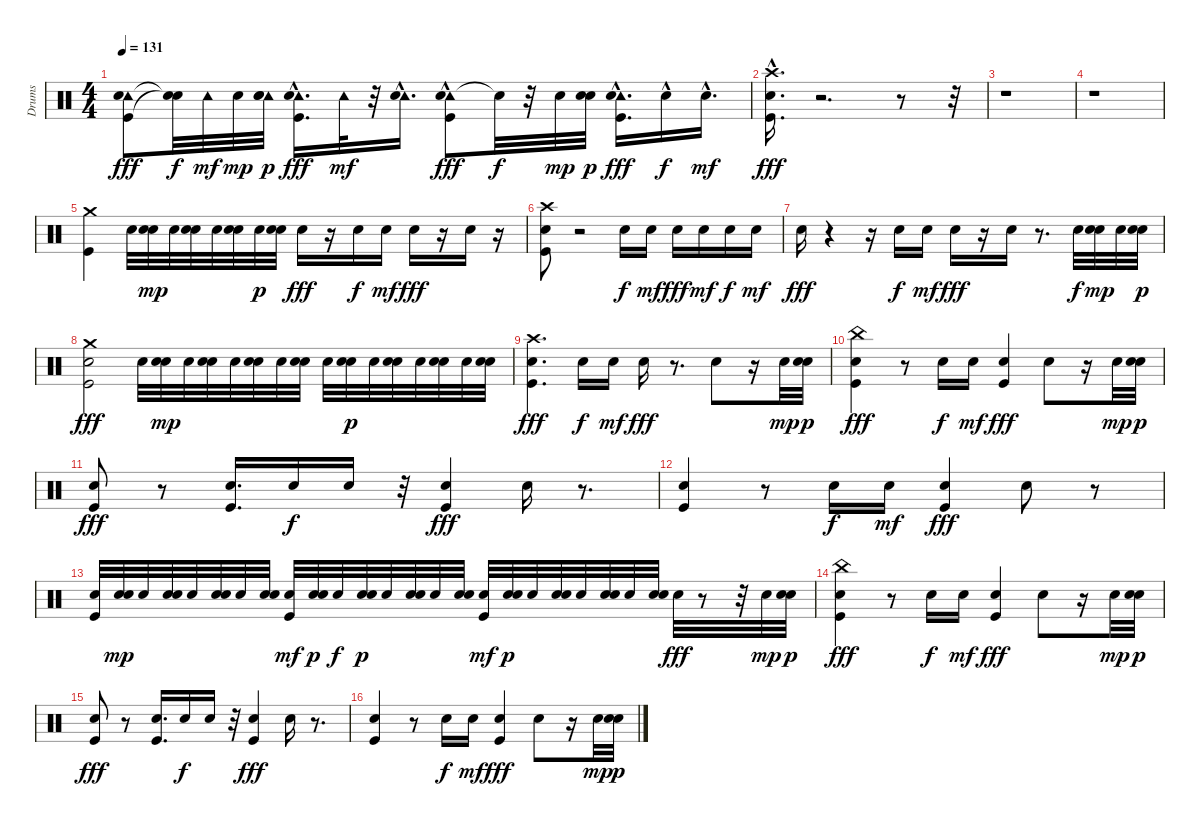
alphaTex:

\track ("Drums" "Drums") {instrument percussion}
\staff {score}
\articulation defaults
\ts (4 4)
\tempo 131
\clef neutral
\ks c
("Tambourine (hit)" "Kick (hit)" "Snare (hit) 2").8{dy fff} ("Snare (hit)"{t} "Snare (hit)"{t}).32{dy f} "Tambourine (hit)".32{dy mf} "Snare (hit) 2".32{dy mp} ("Tambourine (hit)" "Snare (hit) 2" "Snare (hit) 2").32{dy p} ("Tambourine (hit)" "Kick (hit)" "Snare (hit) 2"{hac}).16{d dy fff} "Tambourine (hit)".32{dy mf} r.32 ("Tambourine (hit)"{hac} "Snare (hit) 2"{hac}).16{d} ("Tambourine (hit)" "Kick (hit)" "Snare (hit) 2"{hac}).8{dy fff} "Snare (hit)"{t}.32{dy f} r.32 "Snare (hit) 2".32{dy mp} ("Snare (hit) 2" "Snare (hit) 2").32{dy p} ("Tambourine (hit)"{hac} "Kick (hit)"{hac} "Snare (hit) 2"{hac}).16{d dy fff} "Snare (hit) 2"{hac}.16{dy f} "Snare (hit) 2"{hac}.16{d dy mf} |
("Crash high (hit)" "Snare (hit) 2"{hac} "Kick (hit)"{hac}).16{d dy fff} r.2{d} r.8 r.32 |
r.1 |
r.1 |
("Kick (hit)" "Crash medium (hit)").4 "Snare (hit) 2".32 ("Snare (hit) 2" "Snare (hit) 2").32{dy mp} "Snare (hit) 2".32 ("Snare (hit) 2" "Snare (hit) 2").32 "Snare (hit) 2".32 ("Snare (hit) 2" "Snare (hit) 2").32 "Snare (hit) 2".32{dy p} ("Snare (hit) 2" "Snare (hit) 2").32 "Snare (hit) 2".16{dy fff} r.16 "Snare (hit) 2".16{dy f} "Snare (hit) 2".16{dy mf} "Snare (hit) 2".16{dy fff} r.16 "Snare (hit) 2".16 r.16 |
("Snare (hit) 2" "Crash high (hit)" "Kick (hit)").8 r.2 "Snare (hit) 2".16{dy f} "Snare (hit) 2".16{dy mf} "Snare (hit) 2".16{dy fff} "Snare (hit) 2".16{dy mf} "Snare (hit) 2".16{dy f} "Snare (hit) 2".16{dy mf} |
"Snare (hit) 2".16{dy fff} r.4 r.16 "Snare (hit) 2".16{dy f} "Snare (hit) 2".16{dy mf} "Snare (hit) 2".16{dy fff} r.16 "Snare (hit) 2".16 r.8{d} "Snare (hit) 2".32{dy f} ("Snare (hit) 2" "Snare (hit) 2").32{dy mp} "Snare (hit) 2".32 ("Snare (hit) 2" "Snare (hit) 2").32{dy p} |
("Snare (hit) 2" "Kick (hit)" "Crash medium (hit)").2{dy fff} "Snare (hit) 2".32 ("Snare (hit) 2" "Snare (hit) 2").32{dy mp} "Snare (hit) 2".32 ("Snare (hit) 2" "Snare (hit) 2").32 "Snare (hit) 2".32 ("Snare (hit) 2" "Snare (hit) 2").32 "Snare (hit) 2".32 ("Snare (hit) 2" "Snare (hit) 2").32 "Snare (hit) 2".32 ("Snare (hit) 2" "Snare (hit) 2").32{dy p} "Snare (hit) 2".32 ("Snare (hit) 2" "Snare (hit) 2").32 "Snare (hit) 2".32 ("Snare (hit) 2" "Snare (hit) 2").32 "Snare (hit) 2".32 ("Snare (hit) 2" "Snare (hit) 2").32 |
("Snare (hit) 2" "Kick (hit)" "Crash high (hit)").4{d dy fff} "Snare (hit) 2".16{dy f} "Snare (hit) 2".16{dy mf} "Snare (hit) 2".16{dy fff} r.8{d} "Snare (hit) 2".8 r.16 "Snare (hit) 2".32{dy mp} ("Snare (hit) 2" "Snare (hit) 2").32{dy p} |
("Snare (hit) 2" "Kick (hit)" "China (hit)").4{dy fff} r.8 "Snare (hit) 2".16{dy f} "Snare (hit) 2".16{dy mf} ("Snare (hit) 2" "Kick (hit)").4{dy fff} "Snare (hit) 2".8 r.16 "Snare (hit) 2".32{dy mp} ("Snare (hit) 2" "Snare (hit) 2").32{dy p} |
("Snare (hit) 2" "Kick (hit)").8{dy fff} r.8 ("Snare (hit) 2" "Kick (hit)").16{d} "Snare (hit) 2".16{dy f} "Snare (hit) 2".16 r.32 ("Snare (hit) 2" "Kick (hit)").4{dy fff} "Snare (hit) 2".16 r.8{d} |
("Kick (hit)" "Snare (hit) 2").4 r.8 "Snare (hit) 2".16{dy f} "Snare (hit) 2".16{dy mf} ("Kick (hit)" "Snare (hit) 2").4{dy fff} "Snare (hit) 2".8 r.8 |
("Kick (hit)" "Snare (hit) 2").32 ("Snare (hit) 2" "Snare (hit) 2").32{dy mp} "Snare (hit) 2".32 ("Snare (hit) 2" "Snare (hit) 2").32 "Snare (hit) 2".32 ("Snare (hit) 2" "Snare (hit) 2").32 "Snare (hit) 2".32 ("Snare (hit) 2" "Snare (hit) 2").32 ("Kick (hit)" "Snare (hit) 2").32{dy mf} ("Snare (hit) 2" "Snare (hit) 2").32{dy p} "Snare (hit) 2".32{dy f} ("Snare (hit) 2" "Snare (hit) 2").32{dy p} "Snare (hit) 2".32 ("Snare (hit) 2" "Snare (hit) 2").32 "Snare (hit) 2".32 ("Snare (hit) 2" "Snare (hit) 2").32 ("Kick (hit)" "Snare (hit) 2").32{dy mf} ("Snare (hit) 2" "Snare (hit) 2").32{dy p} "Snare (hit) 2".32 ("Snare (hit) 2" "Snare (hit) 2").32 "Snare (hit) 2".32 ("Snare (hit) 2" "Snare (hit) 2").32 "Snare (hit) 2".32 ("Snare (hit) 2" "Snare (hit) 2").32 "Snare (hit) 2".32{dy fff} r.8 r.32 "Snare (hit) 2".32{dy mp} ("Snare (hit) 2" "Snare (hit) 2").32{dy p} |
("Snare (hit) 2" "Kick (hit)" "China (hit)").4{dy fff} r.8 "Snare (hit) 2".16{dy f} "Snare (hit) 2".16{dy mf} ("Snare (hit) 2" "Kick (hit)").4{dy fff} "Snare (hit) 2".8 r.16 "Snare (hit) 2".32{dy mp} ("Snare (hit) 2" "Snare (hit) 2").32{dy p} |
("Snare (hit) 2" "Kick (hit)").8{dy fff} r.8 ("Snare (hit) 2" "Kick (hit)").16{d} "Snare (hit) 2".16{dy f} "Snare (hit) 2".16 r.32 ("Snare (hit) 2" "Kick (hit)").4{dy fff} "Snare (hit) 2".16 r.8{d} |
("Kick (hit)" "Snare (hit) 2").4 r.8 "Snare (hit) 2".16{dy f} "Snare (hit) 2".16{dy mf} ("Kick (hit)" "Snare (hit) 2").4{dy fff} "Snare (hit) 2".8 r.16 "Snare (hit) 2".32{dy mp} ("Snare (hit) 2" "Snare (hit) 2").32{dy p}
